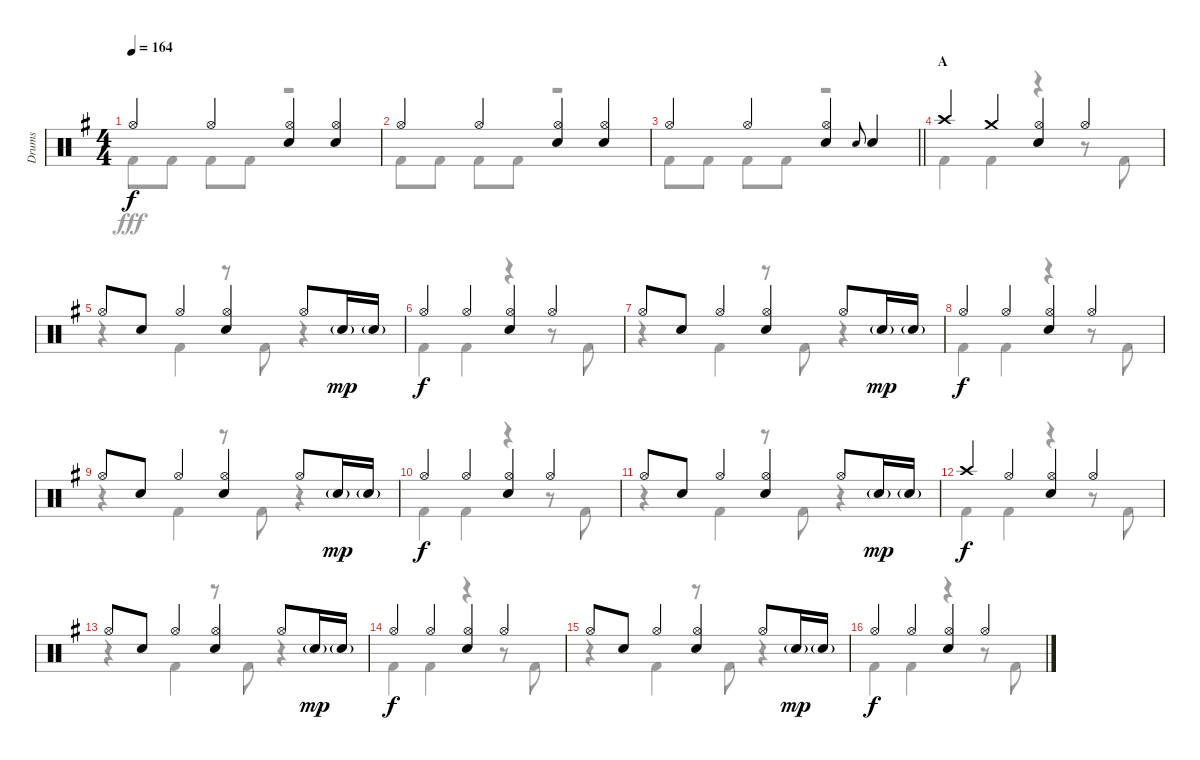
\track ("Drums" "Drums") {instrument percussion}
\staff {score}
\articulation defaults
\voice
\ts (4 4)
\tempo 164
\clef neutral
\ks g "Hi-Hat (open)".4{dy f} "Hi-Hat (open)".4
("Hi-Hat (open)" "Snare (hit) 2").4 ("Hi-Hat (open)" "Snare (hit) 2").4 |
"Hi-Hat (open)".4 "Hi-Hat (open)".4 ("Hi-Hat (open)" "Snare (hit) 2").4 ("Hi-Hat (open)" "Snare (hit) 2").4 |
\barLineRight lightlight "Hi-Hat (open)".4 "Hi-Hat (open)".4
("Hi-Hat (open)" "Snare (hit) 2").4 "Snare (hit) 2".8{gr onbeat} "Snare (hit) 2".4 |
\section ("" "A")
"Crash high (hit)".4 "Crash medium (hit)".4 ("Hi-Hat (open)" "Snare (hit) 2").4 "Hi-Hat (open)".4 |
"Hi-Hat (open)".8 "Snare (hit) 2".8 "Hi-Hat (open)".4 ("Hi-Hat (open)" "Snare (hit) 2").4 "Hi-Hat (open)".8 "Snare (hit) 2"{g}.16{dy mp} "Snare (hit) 2"{g}.16 |
"Hi-Hat (open)".4{dy f} "Hi-Hat (open)".4 ("Hi-Hat (open)" "Snare (hit) 2").4 "Hi-Hat (open)".4 |
"Hi-Hat (open)".8 "Snare (hit) 2".8 "Hi-Hat (open)".4 ("Hi-Hat (open)" "Snare (hit) 2").4 "Hi-Hat (open)".8 "Snare (hit) 2"{g}.16{dy mp} "Snare (hit) 2"{g}.16 |
"Hi-Hat (open)".4{dy f} "Hi-Hat (open)".4 ("Hi-Hat (open)" "Snare (hit) 2").4 "Hi-Hat (open)".4 |
"Hi-Hat (open)".8 "Snare (hit) 2".8 "Hi-Hat (open)".4 ("Hi-Hat (open)" "Snare (hit) 2").4 "Hi-Hat (open)".8 "Snare (hit) 2"{g}.16{dy mp} "Snare (hit) 2"{g}.16 |
"Hi-Hat (open)".4{dy f} "Hi-Hat (open)".4 ("Hi-Hat (open)" "Snare (hit) 2").4 "Hi-Hat (open)".4 |
"Hi-Hat (open)".8 "Snare (hit) 2".8 "Hi-Hat (open)".4 ("Hi-Hat (open)" "Snare (hit) 2").4 "Hi-Hat (open)".8 "Snare (hit) 2"{g}.16{dy mp} "Snare (hit) 2"{g}.16 |
"Crash high (hit)".4{dy f} "Hi-Hat (open)".4 ("Hi-Hat (open)" "Snare (hit) 2").4 "Hi-Hat (open)".4 |
"Hi-Hat (open)".8 "Snare (hit) 2".8 "Hi-Hat (open)".4 ("Hi-Hat (open)" "Snare (hit) 2").4 "Hi-Hat (open)".8 "Snare (hit) 2"{g}.16{dy mp} "Snare (hit) 2"{g}.16 |
"Hi-Hat (open)".4{dy f} "Hi-Hat (open)".4 ("Hi-Hat (open)" "Snare (hit) 2").4 "Hi-Hat (open)".4 |
"Hi-Hat (open)".8 "Snare (hit) 2".8 "Hi-Hat (open)".4 ("Hi-Hat (open)" "Snare (hit) 2").4 "Hi-Hat (open)".8 "Snare (hit) 2"{g}.16{dy mp} "Snare (hit) 2"{g}.16 |
"Hi-Hat (open)".4{dy f} "Hi-Hat (open)".4 ("Hi-Hat (open)" "Snare (hit) 2").4 "Hi-Hat (open)".4
\voice
\clef neutral
\ottava regular
\simile none
\ks g "Kick (hit) 2".8{dy fff} "Kick (hit) 2".8 "Kick (hit) 2".8 "Kick (hit) 2".8
r.2 |
"Kick (hit) 2".8 "Kick (hit) 2".8 "Kick (hit) 2".8 "Kick (hit) 2".8 r.2 |
\barLineRight lightlight "Kick (hit) 2".8 "Kick (hit) 2".8 "Kick (hit) 2".8 "Kick (hit) 2".8
r.2 |
"Kick (hit) 2".4 "Kick (hit) 2".4 r.4 r.8 "Kick (hit) 2".8 |
r.4 "Kick (hit) 2".4 r.8 "Kick (hit) 2".8 r.4 |
"Kick (hit) 2".4 "Kick (hit) 2".4 r.4 r.8 "Kick (hit) 2".8 |
r.4 "Kick (hit) 2".4 r.8 "Kick (hit) 2".8 r.4 |
"Kick (hit) 2".4 "Kick (hit) 2".4 r.4 r.8 "Kick (hit) 2".8 |
r.4 "Kick (hit) 2".4 r.8 "Kick (hit) 2".8 r.4 |
"Kick (hit) 2".4 "Kick (hit) 2".4 r.4 r.8 "Kick (hit) 2".8 |
r.4 "Kick (hit) 2".4 r.8 "Kick (hit) 2".8 r.4 |
"Kick (hit) 2".4 "Kick (hit) 2".4 r.4 r.8 "Kick (hit) 2".8 |
r.4 "Kick (hit) 2".4 r.8 "Kick (hit) 2".8 r.4 |
"Kick (hit) 2".4 "Kick (hit) 2".4 r.4 r.8 "Kick (hit) 2".8 |
r.4 "Kick (hit) 2".4 r.8 "Kick (hit) 2".8 r.4 |
"Kick (hit) 2".4 "Kick (hit) 2".4 r.4 r.8 "Kick (hit) 2".8
